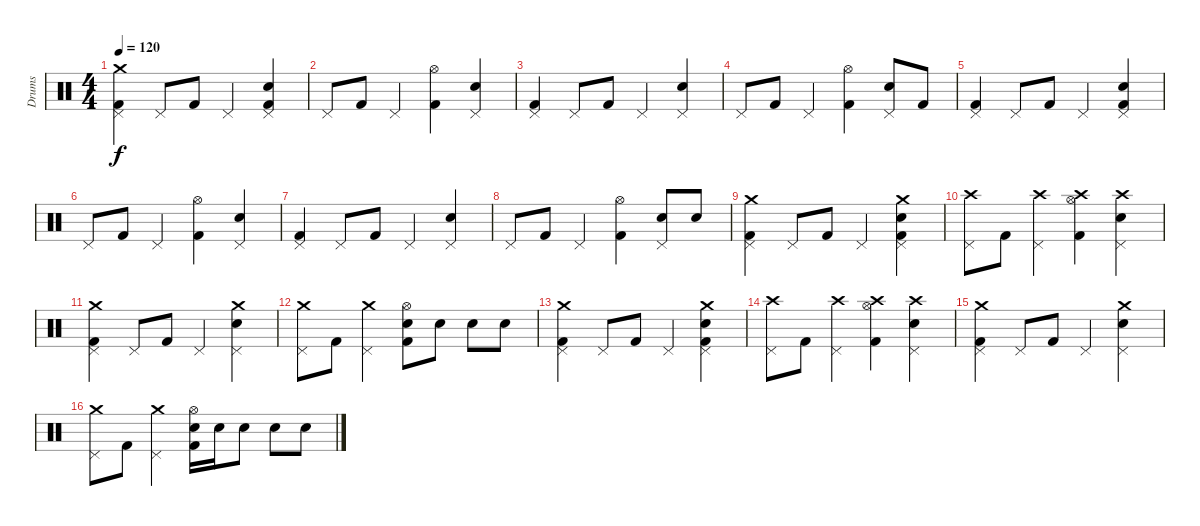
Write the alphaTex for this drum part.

\track ("Drums" "Drums") {instrument percussion}
\staff {score}
\articulation defaults
\ts (4 4)
\tempo 120
\clef neutral
\ks c
("Crash medium (hit)" "Pedal Hi-Hat (hit)" "Kick (hit) 2").4{dy f} "Pedal Hi-Hat (hit)".8 "Kick (hit) 2".8 "Pedal Hi-Hat (hit)".4 ("Pedal Hi-Hat (hit)" "Snare (hit) 2" "Kick (hit) 2").4 |
"Pedal Hi-Hat (hit)".8 "Kick (hit) 2".8 "Pedal Hi-Hat (hit)".4 ("Hi-Hat (open)" "Kick (hit) 2").4 ("Pedal Hi-Hat (hit)" "Snare (hit) 2").4 |
("Pedal Hi-Hat (hit)" "Kick (hit) 2").4 "Pedal Hi-Hat (hit)".8 "Kick (hit) 2".8 "Pedal Hi-Hat (hit)".4 ("Pedal Hi-Hat (hit)" "Snare (hit) 2").4 |
"Pedal Hi-Hat (hit)".8 "Kick (hit) 2".8 "Pedal Hi-Hat (hit)".4 ("Hi-Hat (open)" "Kick (hit) 2").4 ("Pedal Hi-Hat (hit)" "Snare (hit) 2").8 "Kick (hit) 2".8 |
("Pedal Hi-Hat (hit)" "Kick (hit) 2").4 "Pedal Hi-Hat (hit)".8 "Kick (hit) 2".8 "Pedal Hi-Hat (hit)".4 ("Pedal Hi-Hat (hit)" "Snare (hit) 2" "Kick (hit) 2").4 |
"Pedal Hi-Hat (hit)".8 "Kick (hit) 2".8 "Pedal Hi-Hat (hit)".4 ("Hi-Hat (open)" "Kick (hit) 2").4 ("Pedal Hi-Hat (hit)" "Snare (hit) 2").4 |
("Pedal Hi-Hat (hit)" "Kick (hit) 2").4 "Pedal Hi-Hat (hit)".8 "Kick (hit) 2".8 "Pedal Hi-Hat (hit)".4 ("Pedal Hi-Hat (hit)" "Snare (hit) 2").4 |
"Pedal Hi-Hat (hit)".8 "Kick (hit) 2".8 "Pedal Hi-Hat (hit)".4 ("Hi-Hat (open)" "Kick (hit) 2").4 ("Pedal Hi-Hat (hit)" "Snare (hit) 2").8 "Snare (hit) 2".8 |
("Crash medium (hit)" "Pedal Hi-Hat (hit)" "Kick (hit) 2").4 "Pedal Hi-Hat (hit)".8 "Kick (hit) 2".8 "Pedal Hi-Hat (hit)".4 ("Crash medium (hit)" "Pedal Hi-Hat (hit)" "Snare (hit) 2" "Kick (hit) 2").4 |
("Crash high (hit)" "Pedal Hi-Hat (hit)").8 "Kick (hit) 2".8 ("Crash high (hit)" "Pedal Hi-Hat (hit)").4 ("Crash high (hit)" "Hi-Hat (open)" "Kick (hit) 2").4 ("Crash high (hit)" "Pedal Hi-Hat (hit)" "Snare (hit) 2").4 |
("Crash medium (hit)" "Pedal Hi-Hat (hit)" "Kick (hit) 2").4 "Pedal Hi-Hat (hit)".8 "Kick (hit) 2".8 "Pedal Hi-Hat (hit)".4 ("Crash medium (hit)" "Pedal Hi-Hat (hit)" "Snare (hit) 2").4 |
("Crash medium (hit)" "Pedal Hi-Hat (hit)").8 "Kick (hit) 2".8 ("Crash medium (hit)" "Pedal Hi-Hat (hit)").4 ("Hi-Hat (open)" "Snare (hit) 2" "Kick (hit) 2").8 "Snare (hit) 2".8 "Snare (hit) 2".8 "Snare (hit) 2".8 |
("Crash medium (hit)" "Pedal Hi-Hat (hit)" "Kick (hit) 2").4 "Pedal Hi-Hat (hit)".8 "Kick (hit) 2".8 "Pedal Hi-Hat (hit)".4 ("Crash medium (hit)" "Pedal Hi-Hat (hit)" "Snare (hit) 2" "Kick (hit) 2").4 |
("Crash high (hit)" "Pedal Hi-Hat (hit)").8 "Kick (hit) 2".8 ("Crash high (hit)" "Pedal Hi-Hat (hit)").4 ("Crash high (hit)" "Hi-Hat (open)" "Kick (hit) 2").4 ("Crash high (hit)" "Pedal Hi-Hat (hit)" "Snare (hit) 2").4 |
("Crash medium (hit)" "Pedal Hi-Hat (hit)" "Kick (hit) 2").4 "Pedal Hi-Hat (hit)".8 "Kick (hit) 2".8 "Pedal Hi-Hat (hit)".4 ("Crash medium (hit)" "Pedal Hi-Hat (hit)" "Snare (hit) 2").4 |
("Crash medium (hit)" "Pedal Hi-Hat (hit)").8 "Kick (hit) 2".8 ("Crash medium (hit)" "Pedal Hi-Hat (hit)").4 ("Hi-Hat (open)" "Snare (hit) 2" "Kick (hit) 2").16 "Snare (hit) 2".16 "Snare (hit) 2".8 "Snare (hit) 2".8 "Snare (hit) 2".8
